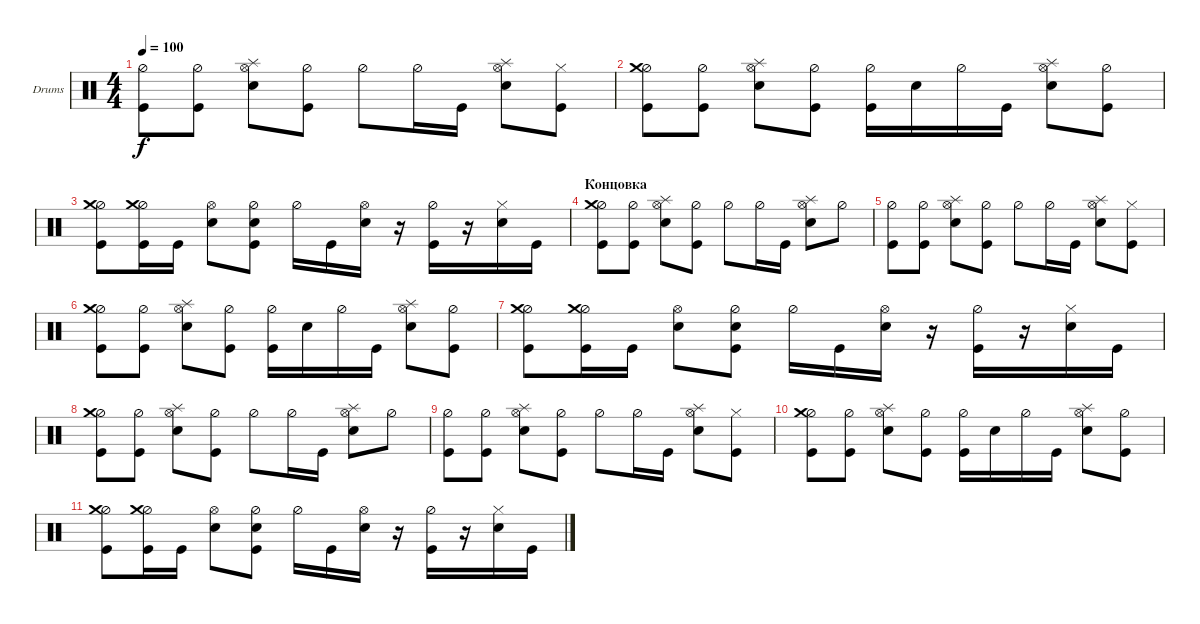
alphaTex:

\bracketExtendMode groupsimilarinstruments
\firstSystemTrackNameOrientation horizontal
\otherSystemsTrackNameOrientation horizontal
\track ("Drumkit" "Drums") {instrument percussion}
\staff {score}
\articulation defaults
\ts (4 4)
\tempo 100
\clef neutral
\ks c
("Hi-Hat (half)" "Kick (hit)").8{dy f} ("Kick (hit)" "Hi-Hat (half)").8 ("Hi-Hat (open)" "Snare (hit) 2" "Splash (hit)").8 ("Kick (hit)" "Hi-Hat (half)").8 "Hi-Hat (half)".8 "Hi-Hat (half)".16 "Kick (hit)".16 ("Hi-Hat (open)" "Snare (hit) 2" "Splash (hit)").8 ("Kick (hit)" "Hi-Hat (closed)").8 |
("Hi-Hat (half)" "Kick (hit)" "Crash medium (hit)").8 ("Kick (hit)" "Hi-Hat (half)").8 ("Hi-Hat (open)" "Snare (hit) 2" "Splash (hit)").8 ("Kick (hit)" "Hi-Hat (half)").8 ("Hi-Hat (half)" "Kick (hit)").16 "Snare (hit) 2".16 "Hi-Hat (half)".16 "Kick (hit)".16 ("Hi-Hat (open)" "Snare (hit) 2" "Splash (hit)").8 ("Kick (hit)" "Hi-Hat (half)").8 |
("Hi-Hat (half)" "Kick (hit)" "Crash medium (hit)").8 ("Kick (hit)" "Hi-Hat (half)" "Crash medium (hit)").16 "Kick (hit)".16 ("Hi-Hat (open)" "Snare (hit) 2").8 ("Kick (hit)" "Hi-Hat (half)" "Snare (hit) 2").8 "Hi-Hat (half)".16 "Kick (hit)".16 ("Snare (hit) 2" "Hi-Hat (open)").16 r.16 ("Kick (hit)" "Hi-Hat (half)").16 r.16 ("Snare (hit) 2" "Hi-Hat (closed)").16 "Kick (hit)".16 |
\section ("" "Концовка")
("Hi-Hat (half)" "Kick (hit)" "Crash medium (hit)").8 ("Kick (hit)" "Hi-Hat (half)").8 ("Hi-Hat (open)" "Snare (hit) 2" "Splash (hit)").8 ("Kick (hit)" "Hi-Hat (half)").8 "Hi-Hat (half)".8 "Hi-Hat (half)".16 "Kick (hit)".16 ("Hi-Hat (open)" "Snare (hit) 2" "Splash (hit)").8 "Hi-Hat (half)".8 |
("Hi-Hat (half)" "Kick (hit)").8 ("Kick (hit)" "Hi-Hat (half)").8 ("Hi-Hat (open)" "Snare (hit) 2" "Splash (hit)").8 ("Kick (hit)" "Hi-Hat (half)").8 "Hi-Hat (half)".8 "Hi-Hat (half)".16 "Kick (hit)".16 ("Hi-Hat (open)" "Snare (hit) 2" "Splash (hit)").8 ("Kick (hit)" "Hi-Hat (closed)").8 |
("Hi-Hat (half)" "Kick (hit)" "Crash medium (hit)").8 ("Kick (hit)" "Hi-Hat (half)").8 ("Hi-Hat (open)" "Snare (hit) 2" "Splash (hit)").8 ("Kick (hit)" "Hi-Hat (half)").8 ("Hi-Hat (half)" "Kick (hit)").16 "Snare (hit) 2".16 "Hi-Hat (half)".16 "Kick (hit)".16 ("Hi-Hat (open)" "Snare (hit) 2" "Splash (hit)").8 ("Kick (hit)" "Hi-Hat (half)").8 |
("Hi-Hat (half)" "Kick (hit)" "Crash medium (hit)").8 ("Kick (hit)" "Hi-Hat (half)" "Crash medium (hit)").16 "Kick (hit)".16 ("Hi-Hat (open)" "Snare (hit) 2").8 ("Kick (hit)" "Hi-Hat (half)" "Snare (hit) 2").8 "Hi-Hat (half)".16 "Kick (hit)".16 ("Snare (hit) 2" "Hi-Hat (open)").16 r.16 ("Kick (hit)" "Hi-Hat (half)").16 r.16 ("Snare (hit) 2" "Hi-Hat (closed)").16 "Kick (hit)".16 |
("Hi-Hat (half)" "Kick (hit)" "Crash medium (hit)").8 ("Kick (hit)" "Hi-Hat (half)").8 ("Hi-Hat (open)" "Snare (hit) 2" "Splash (hit)").8 ("Kick (hit)" "Hi-Hat (half)").8 "Hi-Hat (half)".8 "Hi-Hat (half)".16 "Kick (hit)".16 ("Hi-Hat (open)" "Snare (hit) 2" "Splash (hit)").8 "Hi-Hat (half)".8 |
("Hi-Hat (half)" "Kick (hit)").8 ("Kick (hit)" "Hi-Hat (half)").8 ("Hi-Hat (open)" "Snare (hit) 2" "Splash (hit)").8 ("Kick (hit)" "Hi-Hat (half)").8 "Hi-Hat (half)".8 "Hi-Hat (half)".16 "Kick (hit)".16 ("Hi-Hat (open)" "Snare (hit) 2" "Splash (hit)").8 ("Kick (hit)" "Hi-Hat (closed)").8 |
("Hi-Hat (half)" "Kick (hit)" "Crash medium (hit)").8 ("Kick (hit)" "Hi-Hat (half)").8 ("Hi-Hat (open)" "Snare (hit) 2" "Splash (hit)").8 ("Kick (hit)" "Hi-Hat (half)").8 ("Hi-Hat (half)" "Kick (hit)").16 "Snare (hit) 2".16 "Hi-Hat (half)".16 "Kick (hit)".16 ("Hi-Hat (open)" "Snare (hit) 2" "Splash (hit)").8 ("Kick (hit)" "Hi-Hat (half)").8 |
("Hi-Hat (half)" "Kick (hit)" "Crash medium (hit)").8 ("Kick (hit)" "Hi-Hat (half)" "Crash medium (hit)").16 "Kick (hit)".16 ("Hi-Hat (open)" "Snare (hit) 2").8 ("Kick (hit)" "Hi-Hat (half)" "Snare (hit) 2").8 "Hi-Hat (half)".16 "Kick (hit)".16 ("Snare (hit) 2" "Hi-Hat (open)").16 r.16 ("Kick (hit)" "Hi-Hat (half)").16 r.16 ("Snare (hit) 2" "Hi-Hat (closed)").16 "Kick (hit)".16
